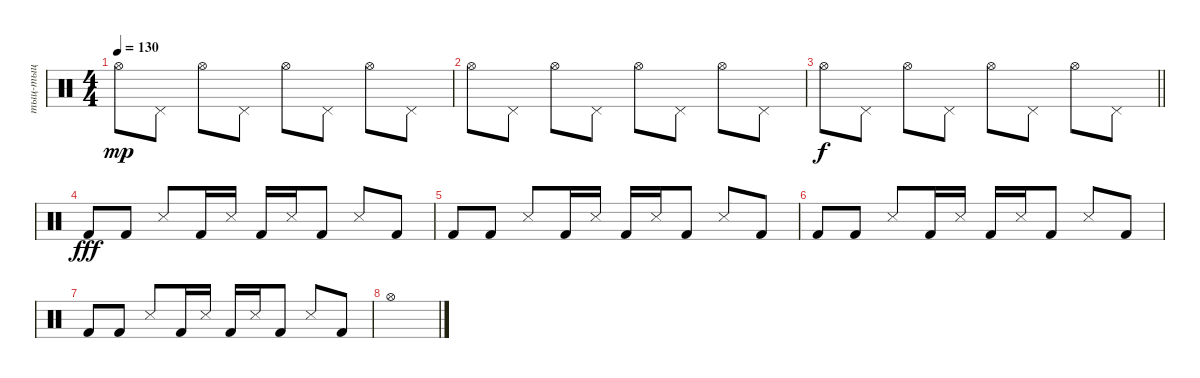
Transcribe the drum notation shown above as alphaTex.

\track ("тыц-тыц" "тыц-тыц") {instrument percussion}
\staff {score}
\articulation defaults
\ts (4 4)
\tempo 130
\clef neutral
\ks c "Hi-Hat (open)".8{dy mp} "Pedal Hi-Hat (hit)".8 "Hi-Hat (open)".8 "Pedal Hi-Hat (hit)".8 "Hi-Hat (open)".8 "Pedal Hi-Hat (hit)".8 "Hi-Hat (open)".8 "Pedal Hi-Hat (hit)".8
|
"Hi-Hat (open)".8 "Pedal Hi-Hat (hit)".8 "Hi-Hat (open)".8 "Pedal Hi-Hat (hit)".8 "Hi-Hat (open)".8 "Pedal Hi-Hat (hit)".8 "Hi-Hat (open)".8 "Pedal Hi-Hat (hit)".8 |
\barLineRight lightlight "Hi-Hat (open)".8{dy f} "Pedal Hi-Hat (hit)".8 "Hi-Hat (open)".8 "Pedal Hi-Hat (hit)".8 "Hi-Hat (open)".8 "Pedal Hi-Hat (hit)".8 "Hi-Hat (open)".8 "Pedal Hi-Hat (hit)".8
|
"Kick (hit) 2".8{dy fff} "Kick (hit) 2".8 "Snare (side stick) 3".8 "Kick (hit) 2".16 "Snare (side stick) 3".16 "Kick (hit) 2".16 "Snare (side stick) 3".16 "Kick (hit) 2".8 "Snare (side stick) 3".8 "Kick (hit) 2".8 |
"Kick (hit) 2".8 "Kick (hit) 2".8 "Snare (side stick) 3".8 "Kick (hit) 2".16 "Snare (side stick) 3".16 "Kick (hit) 2".16 "Snare (side stick) 3".16 "Kick (hit) 2".8 "Snare (side stick) 3".8 "Kick (hit) 2".8 |
"Kick (hit) 2".8 "Kick (hit) 2".8 "Snare (side stick) 3".8 "Kick (hit) 2".16 "Snare (side stick) 3".16 "Kick (hit) 2".16 "Snare (side stick) 3".16 "Kick (hit) 2".8 "Snare (side stick) 3".8 "Kick (hit) 2".8 |
"Kick (hit) 2".8 "Kick (hit) 2".8 "Snare (side stick) 3".8 "Kick (hit) 2".16 "Snare (side stick) 3".16 "Kick (hit) 2".16 "Snare (side stick) 3".16 "Kick (hit) 2".8 "Snare (side stick) 3".8 "Kick (hit) 2".8 |
"Hi-Hat (open)".1
